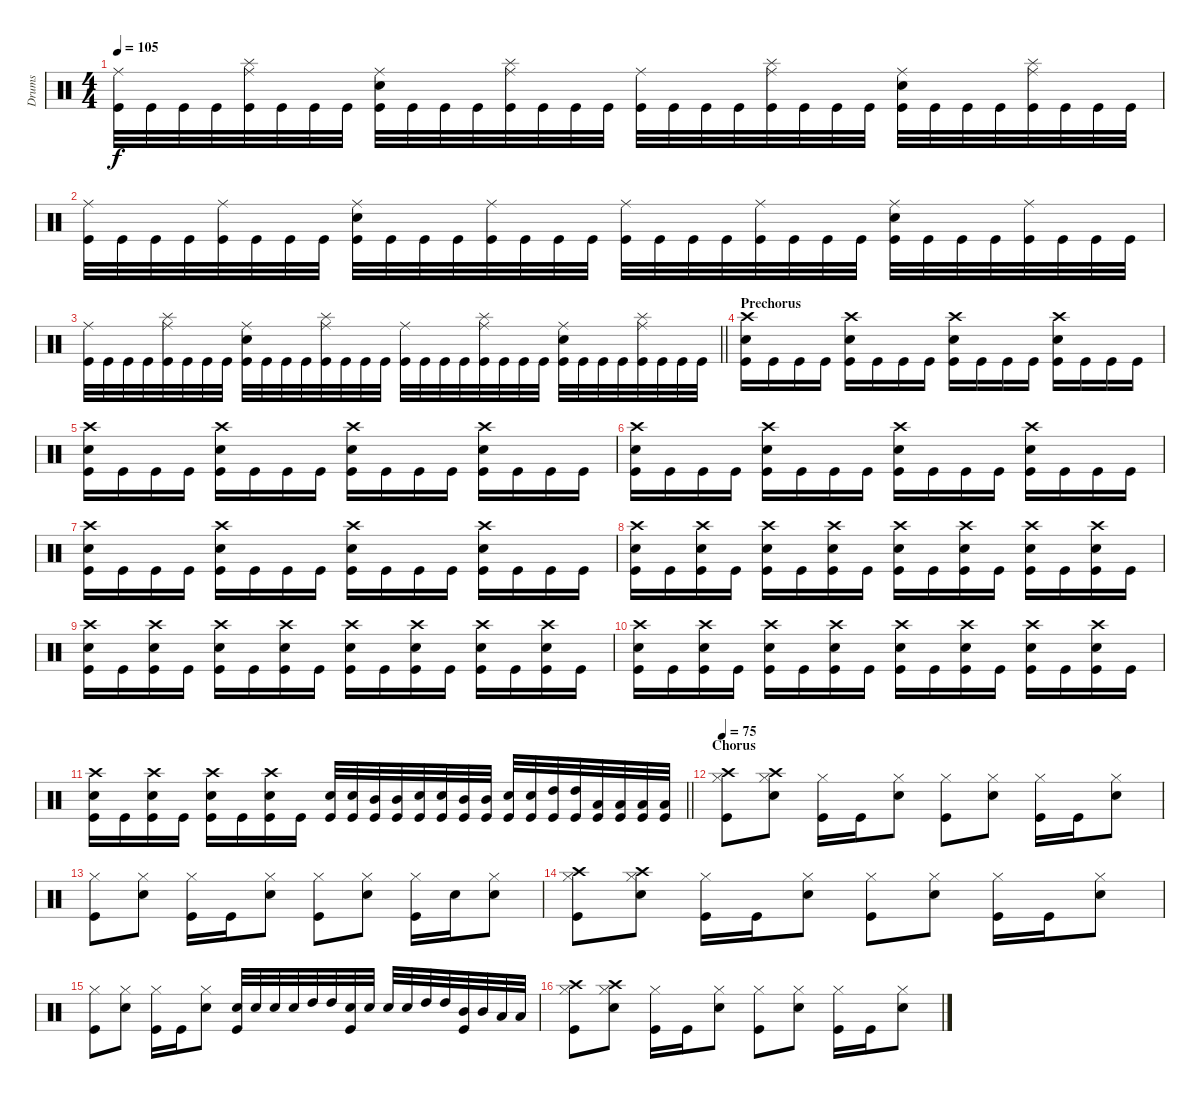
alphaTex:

\track ("Drums" "Drums") {instrument percussion}
\staff {score}
\articulation defaults
\ts (4 4)
\tempo 105
\clef neutral
\ks c
("Ride (middle)" "Kick (hit)").32{dy f} "Kick (hit)".32 "Kick (hit)".32 "Kick (hit)".32 ("Ride (middle)" "Splash (hit)" "Kick (hit)").32 "Kick (hit)".32 "Kick (hit)".32 "Kick (hit)".32 ("Ride (middle)" "Snare (hit) 2" "Kick (hit)").32 "Kick (hit)".32 "Kick (hit)".32 "Kick (hit)".32 ("Ride (middle)" "Splash (hit)" "Kick (hit)").32 "Kick (hit)".32 "Kick (hit)".32 "Kick (hit)".32 ("Ride (middle)" "Kick (hit)").32 "Kick (hit)".32 "Kick (hit)".32 "Kick (hit)".32 ("Ride (middle)" "Splash (hit)" "Kick (hit)").32 "Kick (hit)".32 "Kick (hit)".32 "Kick (hit)".32 ("Ride (middle)" "Snare (hit) 2" "Kick (hit)").32 "Kick (hit)".32 "Kick (hit)".32 "Kick (hit)".32 ("Ride (middle)" "Splash (hit)" "Kick (hit)").32 "Kick (hit)".32 "Kick (hit)".32 "Kick (hit)".32 |
("Ride (middle)" "Kick (hit)").32 "Kick (hit)".32 "Kick (hit)".32 "Kick (hit)".32 ("Ride (middle)" "Kick (hit)").32 "Kick (hit)".32 "Kick (hit)".32 "Kick (hit)".32 ("Ride (middle)" "Snare (hit) 2" "Kick (hit)").32 "Kick (hit)".32 "Kick (hit)".32 "Kick (hit)".32 ("Ride (middle)" "Kick (hit)").32 "Kick (hit)".32 "Kick (hit)".32 "Kick (hit)".32 ("Ride (middle)" "Kick (hit)").32 "Kick (hit)".32 "Kick (hit)".32 "Kick (hit)".32 ("Ride (middle)" "Kick (hit)").32 "Kick (hit)".32 "Kick (hit)".32 "Kick (hit)".32 ("Ride (middle)" "Snare (hit) 2" "Kick (hit)").32 "Kick (hit)".32 "Kick (hit)".32 "Kick (hit)".32 ("Ride (middle)" "Kick (hit)").32 "Kick (hit)".32 "Kick (hit)".32 "Kick (hit)".32 |
\barLineRight lightlight
("Ride (middle)" "Kick (hit)").32 "Kick (hit)".32 "Kick (hit)".32 "Kick (hit)".32 ("Ride (middle)" "Splash (hit)" "Kick (hit)").32 "Kick (hit)".32 "Kick (hit)".32 "Kick (hit)".32 ("Ride (middle)" "Snare (hit) 2" "Kick (hit)").32 "Kick (hit)".32 "Kick (hit)".32 "Kick (hit)".32 ("Ride (middle)" "Splash (hit)" "Kick (hit)").32 "Kick (hit)".32 "Kick (hit)".32 "Kick (hit)".32 ("Ride (middle)" "Kick (hit)").32 "Kick (hit)".32 "Kick (hit)".32 "Kick (hit)".32 ("Ride (middle)" "Splash (hit)" "Kick (hit)").32 "Kick (hit)".32 "Kick (hit)".32 "Kick (hit)".32 ("Ride (middle)" "Snare (hit) 2" "Kick (hit)").32 "Kick (hit)".32 "Kick (hit)".32 "Kick (hit)".32 ("Ride (middle)" "Splash (hit)" "Kick (hit)").32 "Kick (hit)".32 "Kick (hit)".32 "Kick (hit)".32 |
\section ("" "Prechorus")
("Crash high (hit)" "Snare (hit) 2" "Kick (hit)").16 "Kick (hit)".16 "Kick (hit)".16 "Kick (hit)".16 ("Crash high (hit)" "Snare (hit) 2" "Kick (hit)").16 "Kick (hit)".16 "Kick (hit)".16 "Kick (hit)".16 ("Crash high (hit)" "Snare (hit) 2" "Kick (hit)").16 "Kick (hit)".16 "Kick (hit)".16 "Kick (hit)".16 ("Crash high (hit)" "Snare (hit) 2" "Kick (hit)").16 "Kick (hit)".16 "Kick (hit)".16 "Kick (hit)".16 |
("Crash high (hit)" "Snare (hit) 2" "Kick (hit)").16 "Kick (hit)".16 "Kick (hit)".16 "Kick (hit)".16 ("Crash high (hit)" "Snare (hit) 2" "Kick (hit)").16 "Kick (hit)".16 "Kick (hit)".16 "Kick (hit)".16 ("Crash high (hit)" "Snare (hit) 2" "Kick (hit)").16 "Kick (hit)".16 "Kick (hit)".16 "Kick (hit)".16 ("Crash high (hit)" "Snare (hit) 2" "Kick (hit)").16 "Kick (hit)".16 "Kick (hit)".16 "Kick (hit)".16 |
("Crash high (hit)" "Snare (hit) 2" "Kick (hit)").16 "Kick (hit)".16 "Kick (hit)".16 "Kick (hit)".16 ("Crash high (hit)" "Snare (hit) 2" "Kick (hit)").16 "Kick (hit)".16 "Kick (hit)".16 "Kick (hit)".16 ("Crash high (hit)" "Snare (hit) 2" "Kick (hit)").16 "Kick (hit)".16 "Kick (hit)".16 "Kick (hit)".16 ("Crash high (hit)" "Snare (hit) 2" "Kick (hit)").16 "Kick (hit)".16 "Kick (hit)".16 "Kick (hit)".16 |
("Crash high (hit)" "Snare (hit) 2" "Kick (hit)").16 "Kick (hit)".16 "Kick (hit)".16 "Kick (hit)".16 ("Crash high (hit)" "Snare (hit) 2" "Kick (hit)").16 "Kick (hit)".16 "Kick (hit)".16 "Kick (hit)".16 ("Crash high (hit)" "Snare (hit) 2" "Kick (hit)").16 "Kick (hit)".16 "Kick (hit)".16 "Kick (hit)".16 ("Crash high (hit)" "Snare (hit) 2" "Kick (hit)").16 "Kick (hit)".16 "Kick (hit)".16 "Kick (hit)".16 |
("Crash high (hit)" "Snare (hit) 2" "Kick (hit)").16 "Kick (hit)".16 ("Crash high (hit)" "Snare (hit) 2" "Kick (hit)").16 "Kick (hit)".16 ("Crash high (hit)" "Snare (hit) 2" "Kick (hit)").16 "Kick (hit)".16 ("Crash high (hit)" "Snare (hit) 2" "Kick (hit)").16 "Kick (hit)".16 ("Crash high (hit)" "Snare (hit) 2" "Kick (hit)").16 "Kick (hit)".16 ("Crash high (hit)" "Snare (hit) 2" "Kick (hit)").16 "Kick (hit)".16 ("Crash high (hit)" "Snare (hit) 2" "Kick (hit)").16 "Kick (hit)".16 ("Crash high (hit)" "Snare (hit) 2" "Kick (hit)").16 "Kick (hit)".16 |
("Crash high (hit)" "Snare (hit) 2" "Kick (hit)").16 "Kick (hit)".16 ("Crash high (hit)" "Snare (hit) 2" "Kick (hit)").16 "Kick (hit)".16 ("Crash high (hit)" "Snare (hit) 2" "Kick (hit)").16 "Kick (hit)".16 ("Crash high (hit)" "Snare (hit) 2" "Kick (hit)").16 "Kick (hit)".16 ("Crash high (hit)" "Snare (hit) 2" "Kick (hit)").16 "Kick (hit)".16 ("Crash high (hit)" "Snare (hit) 2" "Kick (hit)").16 "Kick (hit)".16 ("Crash high (hit)" "Snare (hit) 2" "Kick (hit)").16 "Kick (hit)".16 ("Crash high (hit)" "Snare (hit) 2" "Kick (hit)").16 "Kick (hit)".16 |
("Crash high (hit)" "Snare (hit) 2" "Kick (hit)").16 "Kick (hit)".16 ("Crash high (hit)" "Snare (hit) 2" "Kick (hit)").16 "Kick (hit)".16 ("Crash high (hit)" "Snare (hit) 2" "Kick (hit)").16 "Kick (hit)".16 ("Crash high (hit)" "Snare (hit) 2" "Kick (hit)").16 "Kick (hit)".16 ("Crash high (hit)" "Snare (hit) 2" "Kick (hit)").16 "Kick (hit)".16 ("Crash high (hit)" "Snare (hit) 2" "Kick (hit)").16 "Kick (hit)".16 ("Crash high (hit)" "Snare (hit) 2" "Kick (hit)").16 "Kick (hit)".16 ("Crash high (hit)" "Snare (hit) 2" "Kick (hit)").16 "Kick (hit)".16 |
\barLineRight lightlight
("Crash high (hit)" "Snare (hit) 2" "Kick (hit)").16 "Kick (hit)".16 ("Crash high (hit)" "Snare (hit) 2" "Kick (hit)").16 "Kick (hit)".16 ("Crash high (hit)" "Snare (hit) 2" "Kick (hit)").16 "Kick (hit)".16 ("Crash high (hit)" "Snare (hit) 2" "Kick (hit)").16 "Kick (hit)".16 ("Snare (hit) 2" "Kick (hit)").32 ("Snare (hit) 2" "Kick (hit)").32 ("Mid Tom (hit)" "Kick (hit)").32 ("Mid Tom (hit)" "Kick (hit)").32 ("Snare (hit) 2" "Kick (hit)").32 ("Snare (hit) 2" "Kick (hit)").32 ("Mid Tom (hit)" "Kick (hit)").32 ("Mid Tom (hit)" "Kick (hit)").32 ("Snare (hit) 2" "Kick (hit)").32 ("Snare (hit) 2" "Kick (hit)").32 ("High Tom (hit)" "Kick (hit)").32 ("High Tom (hit)" "Kick (hit)").32 ("Low Tom (hit)" "Kick (hit)").32 ("Low Tom (hit)" "Kick (hit)").32 ("Low Floor Tom (hit)" "Kick (hit)").32 ("Low Floor Tom (hit)" "Kick (hit)").32 |
\section ("" "Chorus")
\tempo 75
("Crash high (hit)" "Hi-Hat (closed)" "Kick (hit)").8 ("Crash high (hit)" "Hi-Hat (closed)" "Snare (hit) 2").8 ("Hi-Hat (closed)" "Kick (hit)").16 "Kick (hit)".16 ("Hi-Hat (closed)" "Snare (hit) 2").8 ("Hi-Hat (closed)" "Kick (hit)").8 ("Hi-Hat (closed)" "Snare (hit) 2").8 ("Hi-Hat (closed)" "Kick (hit)").16 "Kick (hit)".16 ("Hi-Hat (closed)" "Snare (hit) 2").8 |
("Hi-Hat (closed)" "Kick (hit)").8 ("Hi-Hat (closed)" "Snare (hit) 2").8 ("Hi-Hat (closed)" "Kick (hit)").16 "Kick (hit)".16 ("Hi-Hat (closed)" "Snare (hit) 2").8 ("Hi-Hat (closed)" "Kick (hit)").8 ("Hi-Hat (closed)" "Snare (hit) 2").8 ("Hi-Hat (closed)" "Kick (hit)").16 "Snare (hit) 2".16 ("Hi-Hat (closed)" "Snare (hit) 2").8 |
("Crash high (hit)" "Hi-Hat (closed)" "Kick (hit)").8 ("Crash high (hit)" "Hi-Hat (closed)" "Snare (hit) 2").8 ("Hi-Hat (closed)" "Kick (hit)").16 "Kick (hit)".16 ("Hi-Hat (closed)" "Snare (hit) 2").8 ("Hi-Hat (closed)" "Kick (hit)").8 ("Hi-Hat (closed)" "Snare (hit) 2").8 ("Hi-Hat (closed)" "Kick (hit)").16 "Kick (hit)".16 ("Hi-Hat (closed)" "Snare (hit) 2").8 |
("Hi-Hat (closed)" "Kick (hit)").8 ("Hi-Hat (closed)" "Snare (hit) 2").8 ("Hi-Hat (closed)" "Kick (hit)").16 "Kick (hit)".16 ("Hi-Hat (closed)" "Snare (hit) 2").8 ("Snare (hit) 2" "Kick (hit)").32 "Snare (hit) 2".32 "Snare (hit) 2".32 "Snare (hit) 2".32 "High Tom (hit)".32 "High Tom (hit)".32 ("Snare (hit) 2" "Kick (hit)").32 "Snare (hit) 2".32 "Snare (hit) 2".32 "Snare (hit) 2".32 "High Tom (hit)".32 "High Tom (hit)".32 ("Mid Tom (hit)" "Kick (hit)").32 "Mid Tom (hit)".32 "Low Floor Tom (hit)".32 "Low Floor Tom (hit)".32 |
("Crash high (hit)" "Hi-Hat (closed)" "Kick (hit)").8 ("Crash high (hit)" "Hi-Hat (closed)" "Snare (hit) 2").8 ("Hi-Hat (closed)" "Kick (hit)").16 "Kick (hit)".16 ("Hi-Hat (closed)" "Snare (hit) 2").8 ("Hi-Hat (closed)" "Kick (hit)").8 ("Hi-Hat (closed)" "Snare (hit) 2").8 ("Hi-Hat (closed)" "Kick (hit)").16 "Kick (hit)".16 ("Hi-Hat (closed)" "Snare (hit) 2").8
